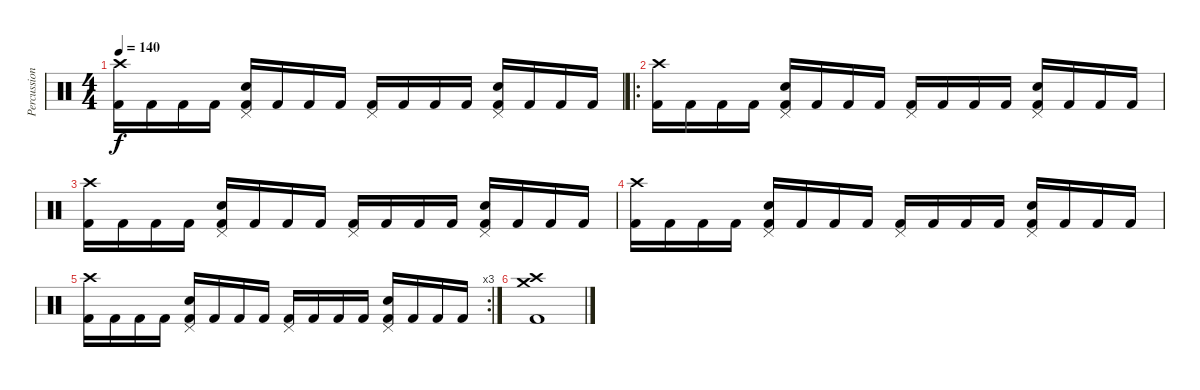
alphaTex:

\track ("Percussion" "Percussion") {instrument percussion}
\staff {score}
\articulation defaults
\ts (4 4)
\tempo 140
\clef neutral
\ks c
("Crash high (hit)" "Kick (hit) 2").16{dy f} "Kick (hit) 2".16 "Kick (hit) 2".16 "Kick (hit) 2".16 ("Pedal Hi-Hat (hit)" "Electric Snare (hit)" "Kick (hit) 2").16 "Kick (hit) 2".16 "Kick (hit) 2".16 "Kick (hit) 2".16 ("Pedal Hi-Hat (hit)" "Kick (hit) 2").16 "Kick (hit) 2".16 "Kick (hit) 2".16 "Kick (hit) 2".16 ("Pedal Hi-Hat (hit)" "Electric Snare (hit)" "Kick (hit) 2").16 "Kick (hit) 2".16 "Kick (hit) 2".16 "Kick (hit) 2".16 |
\ro
("Crash high (hit)" "Kick (hit) 2").16 "Kick (hit) 2".16 "Kick (hit) 2".16 "Kick (hit) 2".16 ("Pedal Hi-Hat (hit)" "Electric Snare (hit)" "Kick (hit) 2").16 "Kick (hit) 2".16 "Kick (hit) 2".16 "Kick (hit) 2".16 ("Pedal Hi-Hat (hit)" "Kick (hit) 2").16 "Kick (hit) 2".16 "Kick (hit) 2".16 "Kick (hit) 2".16 ("Pedal Hi-Hat (hit)" "Electric Snare (hit)" "Kick (hit) 2").16 "Kick (hit) 2".16 "Kick (hit) 2".16 "Kick (hit) 2".16 |
("Crash high (hit)" "Kick (hit) 2").16 "Kick (hit) 2".16 "Kick (hit) 2".16 "Kick (hit) 2".16 ("Pedal Hi-Hat (hit)" "Electric Snare (hit)" "Kick (hit) 2").16 "Kick (hit) 2".16 "Kick (hit) 2".16 "Kick (hit) 2".16 ("Pedal Hi-Hat (hit)" "Kick (hit) 2").16 "Kick (hit) 2".16 "Kick (hit) 2".16 "Kick (hit) 2".16 ("Pedal Hi-Hat (hit)" "Electric Snare (hit)" "Kick (hit) 2").16 "Kick (hit) 2".16 "Kick (hit) 2".16 "Kick (hit) 2".16 |
("Crash high (hit)" "Kick (hit) 2").16 "Kick (hit) 2".16 "Kick (hit) 2".16 "Kick (hit) 2".16 ("Pedal Hi-Hat (hit)" "Electric Snare (hit)" "Kick (hit) 2").16 "Kick (hit) 2".16 "Kick (hit) 2".16 "Kick (hit) 2".16 ("Pedal Hi-Hat (hit)" "Kick (hit) 2").16 "Kick (hit) 2".16 "Kick (hit) 2".16 "Kick (hit) 2".16 ("Pedal Hi-Hat (hit)" "Electric Snare (hit)" "Kick (hit) 2").16 "Kick (hit) 2".16 "Kick (hit) 2".16 "Kick (hit) 2".16 |
\rc 3
("Crash high (hit)" "Kick (hit) 2").16 "Kick (hit) 2".16 "Kick (hit) 2".16 "Kick (hit) 2".16 ("Pedal Hi-Hat (hit)" "Electric Snare (hit)" "Kick (hit) 2").16 "Kick (hit) 2".16 "Kick (hit) 2".16 "Kick (hit) 2".16 ("Pedal Hi-Hat (hit)" "Kick (hit) 2").16 "Kick (hit) 2".16 "Kick (hit) 2".16 "Kick (hit) 2".16 ("Pedal Hi-Hat (hit)" "Electric Snare (hit)" "Kick (hit) 2").16 "Kick (hit) 2".16 "Kick (hit) 2".16 "Kick (hit) 2".16 |
("Crash medium (hit)" "Crash high (hit)" "Kick (hit) 2").1
